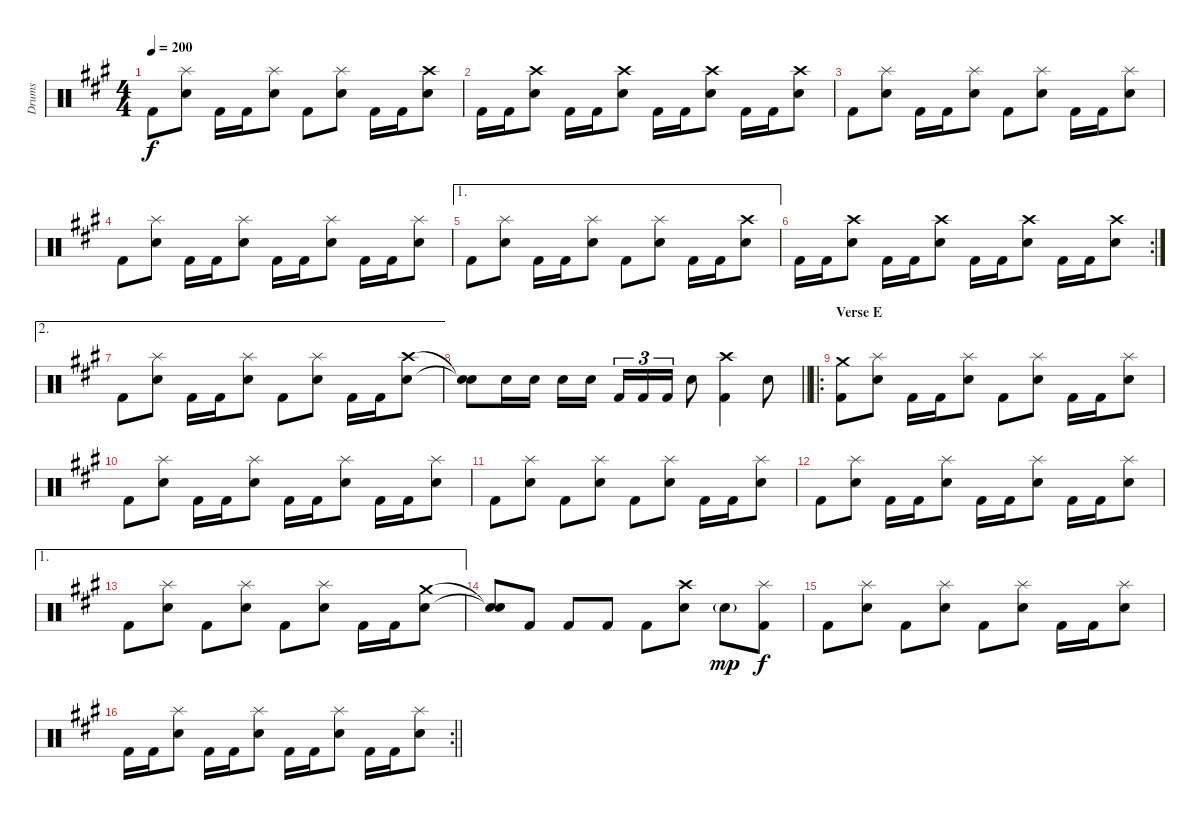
\track ("Drums" "Drums") {instrument percussion}
\staff {score}
\articulation defaults
\ts (4 4)
\tempo 200
\clef neutral
\ks f#minor "Kick (hit) 2".8{dy f}
("Splash (hit)" "Snare (hit) 2").8 "Kick (hit) 2".16 "Kick (hit) 2".16 ("Splash (hit)" "Snare (hit) 2").8 "Kick (hit) 2".8 ("Splash (hit)" "Snare (hit) 2").8 "Kick (hit) 2".16 "Kick (hit) 2".16 ("Crash high (hit)" "Snare (hit) 2").8 |
"Kick (hit) 2".16 "Kick (hit) 2".16 ("Crash high (hit)" "Snare (hit) 2").8 "Kick (hit) 2".16 "Kick (hit) 2".16 ("Crash high (hit)" "Snare (hit) 2").8 "Kick (hit) 2".16 "Kick (hit) 2".16 ("Crash high (hit)" "Snare (hit) 2").8 "Kick (hit) 2".16 "Kick (hit) 2".16 ("Crash high (hit)" "Snare (hit) 2").8 |
"Kick (hit) 2".8 ("Splash (hit)" "Snare (hit) 2").8 "Kick (hit) 2".16 "Kick (hit) 2".16 ("Splash (hit)" "Snare (hit) 2").8 "Kick (hit) 2".8 ("Splash (hit)" "Snare (hit) 2").8 "Kick (hit) 2".16 "Kick (hit) 2".16 ("Splash (hit)" "Snare (hit) 2").8 |
"Kick (hit) 2".8 ("Splash (hit)" "Snare (hit) 2").8 "Kick (hit) 2".16 "Kick (hit) 2".16 ("Splash (hit)" "Snare (hit) 2").8 "Kick (hit) 2".16 "Kick (hit) 2".16 ("Splash (hit)" "Snare (hit) 2").8 "Kick (hit) 2".16 "Kick (hit) 2".16 ("Splash (hit)" "Snare (hit) 2").8 |
\ae 1 "Kick (hit) 2".8
("Splash (hit)" "Snare (hit) 2").8 "Kick (hit) 2".16 "Kick (hit) 2".16 ("Splash (hit)" "Snare (hit) 2").8 "Kick (hit) 2".8 ("Splash (hit)" "Snare (hit) 2").8 "Kick (hit) 2".16 "Kick (hit) 2".16 ("Crash high (hit)" "Snare (hit) 2").8 |
\rc 2 "Kick (hit) 2".16 "Kick (hit) 2".16
("Crash high (hit)" "Snare (hit) 2").8 "Kick (hit) 2".16 "Kick (hit) 2".16 ("Crash high (hit)" "Snare (hit) 2").8 "Kick (hit) 2".16 "Kick (hit) 2".16 ("Crash high (hit)" "Snare (hit) 2").8 "Kick (hit) 2".16 "Kick (hit) 2".16 ("Crash high (hit)" "Snare (hit) 2").8 |
\ae 2 "Kick (hit) 2".8
("Splash (hit)" "Snare (hit) 2").8 "Kick (hit) 2".16 "Kick (hit) 2".16 ("Splash (hit)" "Snare (hit) 2").8 "Kick (hit) 2".8 ("Splash (hit)" "Snare (hit) 2").8 "Kick (hit) 2".16 "Kick (hit) 2".16 ("Crash high (hit)" "Snare (hit) 2").8 |
\barLineRight lightlight
("Snare (hit)"{t} "Snare (hit)"{t}).8 "Snare (hit) 2".16 "Snare (hit) 2".16 "Snare (hit) 2".16 "Snare (hit) 2".16{beam splitsecondary} "Kick (hit) 2".16{tu (3 2)} "Kick (hit) 2".16{tu (3 2)} "Kick (hit) 2".16{tu (3 2)} "Snare (hit) 2".8 ("Crash high (hit)" "Kick (hit) 2").4 "Snare (hit) 2".8 |
\ro
\section ("" "Verse E")
("Crash medium (hit)" "Kick (hit) 2").8 ("Splash (hit)" "Snare (hit) 2").8 "Kick (hit) 2".16 "Kick (hit) 2".16 ("Splash (hit)" "Snare (hit) 2").8 "Kick (hit) 2".8 ("Splash (hit)" "Snare (hit) 2").8 "Kick (hit) 2".16 "Kick (hit) 2".16 ("Splash (hit)" "Snare (hit) 2").8 |
"Kick (hit) 2".8 ("Splash (hit)" "Snare (hit) 2").8 "Kick (hit) 2".16 "Kick (hit) 2".16 ("Splash (hit)" "Snare (hit) 2").8 "Kick (hit) 2".16 "Kick (hit) 2".16 ("Splash (hit)" "Snare (hit) 2").8 "Kick (hit) 2".16 "Kick (hit) 2".16 ("Splash (hit)" "Snare (hit) 2").8 |
"Kick (hit) 2".8 ("Splash (hit)" "Snare (hit) 2").8 "Kick (hit) 2".8 ("Splash (hit)" "Snare (hit) 2").8 "Kick (hit) 2".8 ("Splash (hit)" "Snare (hit) 2").8 "Kick (hit) 2".16 "Kick (hit) 2".16 ("Splash (hit)" "Snare (hit) 2").8 |
"Kick (hit) 2".8 ("Splash (hit)" "Snare (hit) 2").8 "Kick (hit) 2".16 "Kick (hit) 2".16 ("Splash (hit)" "Snare (hit) 2").8 "Kick (hit) 2".16 "Kick (hit) 2".16 ("Splash (hit)" "Snare (hit) 2").8 "Kick (hit) 2".16 "Kick (hit) 2".16 ("Splash (hit)" "Snare (hit) 2").8 |
\ae 1 "Kick (hit) 2".8
("Splash (hit)" "Snare (hit) 2").8 "Kick (hit) 2".8 ("Splash (hit)" "Snare (hit) 2").8 "Kick (hit) 2".8 ("Splash (hit)" "Snare (hit) 2").8 "Kick (hit) 2".16 "Kick (hit) 2".16 ("Crash medium (hit)" "Snare (hit) 2").8 |
("Snare (hit)"{t} "Snare (hit)"{t}).8 "Kick (hit) 2".8 "Kick (hit) 2".8 "Kick (hit) 2".8 "Kick (hit) 2".8 ("Crash high (hit)" "Snare (hit) 2").8 "Snare (hit) 2"{g}.8{dy mp} ("Splash (hit)" "Kick (hit) 2").8{dy f} |
"Kick (hit) 2".8 ("Splash (hit)" "Snare (hit) 2").8 "Kick (hit) 2".8 ("Splash (hit)" "Snare (hit) 2").8 "Kick (hit) 2".8 ("Splash (hit)" "Snare (hit) 2").8 "Kick (hit) 2".16 "Kick (hit) 2".16 ("Splash (hit)" "Snare (hit) 2").8 |
\rc 2
\barLineRight lightlight "Kick (hit) 2".16 "Kick (hit) 2".16
("Splash (hit)" "Snare (hit) 2").8 "Kick (hit) 2".16 "Kick (hit) 2".16 ("Splash (hit)" "Snare (hit) 2").8 "Kick (hit) 2".16 "Kick (hit) 2".16 ("Splash (hit)" "Snare (hit) 2").8 "Kick (hit) 2".16 "Kick (hit) 2".16 ("Splash (hit)" "Snare (hit) 2").8
